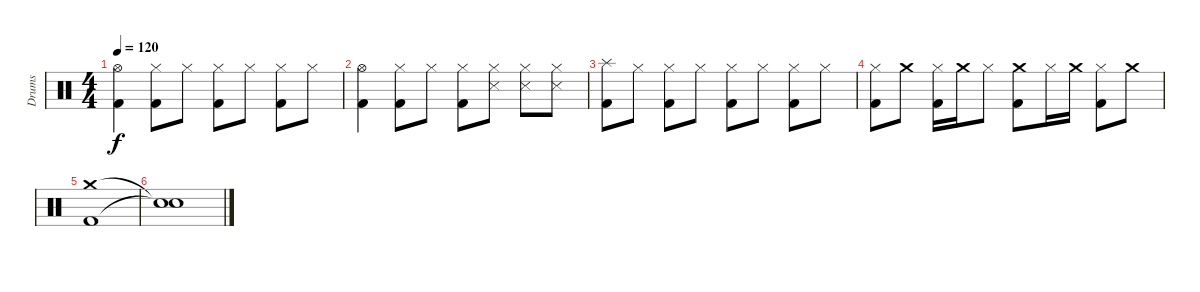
\track ("Drums" "Drums") {instrument percussion}
\staff {score}
\articulation defaults
\ts (4 4)
\tempo 120
\clef neutral
\ks c
("Hi-Hat (open)" "Kick (hit) 2").4{dy f} ("Hi-Hat (closed)" "Kick (hit) 2").8 "Hi-Hat (closed)".8 ("Hi-Hat (closed)" "Kick (hit) 2").8 "Hi-Hat (closed)".8 ("Hi-Hat (closed)" "Kick (hit) 2").8 "Hi-Hat (closed)".8 |
("Hi-Hat (open)" "Kick (hit) 2").4 ("Hi-Hat (closed)" "Kick (hit) 2").8 "Hi-Hat (closed)".8 ("Hi-Hat (closed)" "Kick (hit) 2").8 ("Hi-Hat (closed)" "Snare (side stick) 3").8 ("Hi-Hat (closed)" "Snare (side stick) 3").8 ("Hi-Hat (closed)" "Snare (side stick) 3").8 |
("Splash (hit)" "Kick (hit) 2").8 "Hi-Hat (closed)".8 ("Hi-Hat (closed)" "Kick (hit) 2").8 "Hi-Hat (closed)".8 ("Hi-Hat (closed)" "Kick (hit) 2").8 "Hi-Hat (closed)".8 ("Hi-Hat (closed)" "Kick (hit) 2").8 "Hi-Hat (closed)".8 |
("Hi-Hat (closed)" "Kick (hit) 2").8 "Crash medium (hit)".8 ("Hi-Hat (closed)" "Kick (hit) 2").16 "Crash medium (hit)".16 "Hi-Hat (closed)".8 ("Crash medium (hit)" "Kick (hit) 2").8 "Hi-Hat (closed)".16 "Crash medium (hit)".16 ("Hi-Hat (closed)" "Kick (hit) 2").8 "Crash medium (hit)".8 |
("Crash medium (hit)" "Kick (hit) 2").1 |
("Snare (hit)"{t} "Snare (hit)"{t}).1
